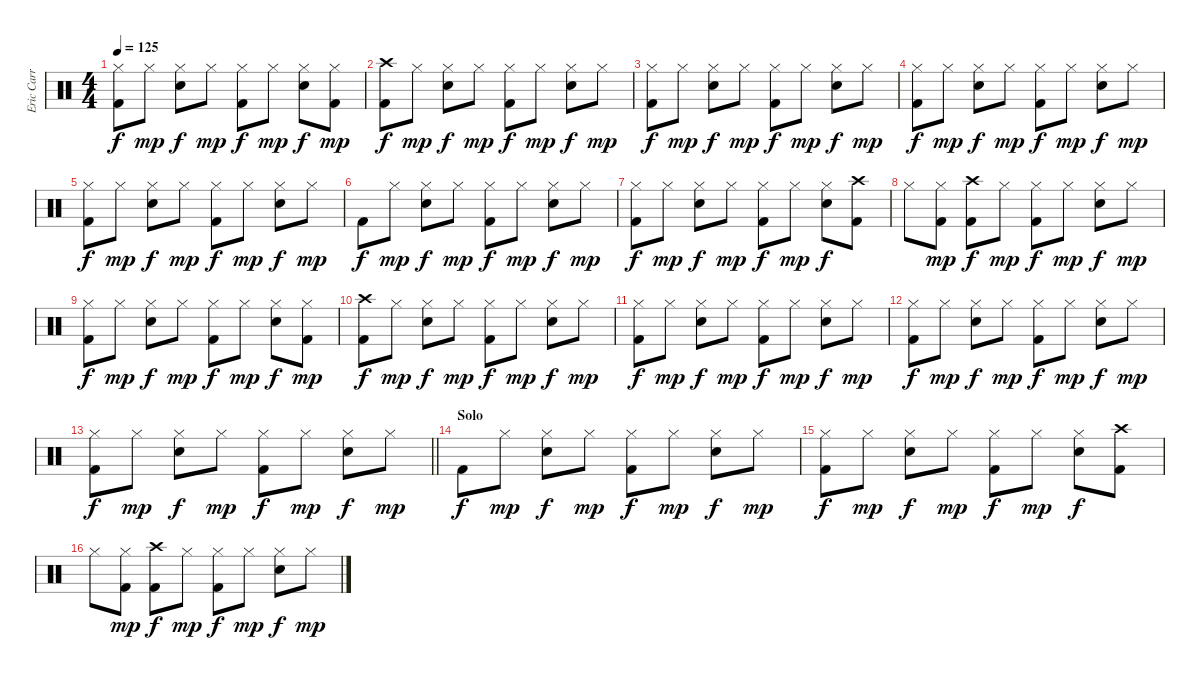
\track ("Eric Carr" "Eric Carr") {instrument percussion}
\staff {score}
\articulation defaults
\ts (4 4)
\tempo 125
\clef neutral
\ks c
("Hi-Hat (closed)" "Kick (hit) 2").8{dy f} "Hi-Hat (closed)".8{dy mp} ("Hi-Hat (closed)" "Snare (hit) 2").8{dy f} "Hi-Hat (closed)".8{dy mp} ("Hi-Hat (closed)" "Kick (hit) 2").8{dy f} "Hi-Hat (closed)".8{dy mp} ("Hi-Hat (closed)" "Snare (hit) 2").8{dy f} ("Hi-Hat (closed)" "Kick (hit) 2").8{dy mp} |
("Crash high (hit)" "Kick (hit) 2").8{dy f} "Hi-Hat (closed)".8{dy mp} ("Hi-Hat (closed)" "Snare (hit) 2").8{dy f} "Hi-Hat (closed)".8{dy mp} ("Hi-Hat (closed)" "Kick (hit) 2").8{dy f} "Hi-Hat (closed)".8{dy mp} ("Hi-Hat (closed)" "Snare (hit) 2").8{dy f} "Hi-Hat (closed)".8{dy mp} |
("Hi-Hat (closed)" "Kick (hit) 2").8{dy f} "Hi-Hat (closed)".8{dy mp} ("Hi-Hat (closed)" "Snare (hit) 2").8{dy f} "Hi-Hat (closed)".8{dy mp} ("Hi-Hat (closed)" "Kick (hit) 2").8{dy f} "Hi-Hat (closed)".8{dy mp} ("Hi-Hat (closed)" "Snare (hit) 2").8{dy f} "Hi-Hat (closed)".8{dy mp} |
("Hi-Hat (closed)" "Kick (hit) 2").8{dy f} "Hi-Hat (closed)".8{dy mp} ("Hi-Hat (closed)" "Snare (hit) 2").8{dy f} "Hi-Hat (closed)".8{dy mp} ("Hi-Hat (closed)" "Kick (hit) 2").8{dy f} "Hi-Hat (closed)".8{dy mp} ("Hi-Hat (closed)" "Snare (hit) 2").8{dy f} "Hi-Hat (closed)".8{dy mp} |
("Hi-Hat (closed)" "Kick (hit) 2").8{dy f} "Hi-Hat (closed)".8{dy mp} ("Hi-Hat (closed)" "Snare (hit) 2").8{dy f} "Hi-Hat (closed)".8{dy mp} ("Hi-Hat (closed)" "Kick (hit) 2").8{dy f} "Hi-Hat (closed)".8{dy mp} ("Hi-Hat (closed)" "Snare (hit) 2").8{dy f} "Hi-Hat (closed)".8{dy mp} |
"Kick (hit) 2".8{dy f} "Hi-Hat (closed)".8{dy mp} ("Hi-Hat (closed)" "Snare (hit) 2").8{dy f} "Hi-Hat (closed)".8{dy mp} ("Hi-Hat (closed)" "Kick (hit) 2").8{dy f} "Hi-Hat (closed)".8{dy mp} ("Hi-Hat (closed)" "Snare (hit) 2").8{dy f} "Hi-Hat (closed)".8{dy mp} |
("Hi-Hat (closed)" "Kick (hit) 2").8{dy f} "Hi-Hat (closed)".8{dy mp} ("Hi-Hat (closed)" "Snare (hit) 2").8{dy f} "Hi-Hat (closed)".8{dy mp} ("Hi-Hat (closed)" "Kick (hit) 2").8{dy f} "Hi-Hat (closed)".8{dy mp} ("Hi-Hat (closed)" "Snare (hit) 2").8{dy f} ("Crash high (hit)" "Kick (hit) 2").8 |
"Hi-Hat (closed)".8 ("Hi-Hat (closed)" "Kick (hit) 2").8{dy mp} ("Crash high (hit)" "Kick (hit) 2").8{dy f} "Hi-Hat (closed)".8{dy mp} ("Hi-Hat (closed)" "Kick (hit) 2").8{dy f} "Hi-Hat (closed)".8{dy mp} ("Hi-Hat (closed)" "Snare (hit) 2").8{dy f} "Hi-Hat (closed)".8{dy mp} |
("Hi-Hat (closed)" "Kick (hit) 2").8{dy f} "Hi-Hat (closed)".8{dy mp} ("Hi-Hat (closed)" "Snare (hit) 2").8{dy f} "Hi-Hat (closed)".8{dy mp} ("Hi-Hat (closed)" "Kick (hit) 2").8{dy f} "Hi-Hat (closed)".8{dy mp} ("Hi-Hat (closed)" "Snare (hit) 2").8{dy f} ("Hi-Hat (closed)" "Kick (hit) 2").8{dy mp} |
("Crash high (hit)" "Kick (hit) 2").8{dy f} "Hi-Hat (closed)".8{dy mp} ("Hi-Hat (closed)" "Snare (hit) 2").8{dy f} "Hi-Hat (closed)".8{dy mp} ("Hi-Hat (closed)" "Kick (hit) 2").8{dy f} "Hi-Hat (closed)".8{dy mp} ("Hi-Hat (closed)" "Snare (hit) 2").8{dy f} "Hi-Hat (closed)".8{dy mp} |
("Hi-Hat (closed)" "Kick (hit) 2").8{dy f} "Hi-Hat (closed)".8{dy mp} ("Hi-Hat (closed)" "Snare (hit) 2").8{dy f} "Hi-Hat (closed)".8{dy mp} ("Hi-Hat (closed)" "Kick (hit) 2").8{dy f} "Hi-Hat (closed)".8{dy mp} ("Hi-Hat (closed)" "Snare (hit) 2").8{dy f} "Hi-Hat (closed)".8{dy mp} |
("Hi-Hat (closed)" "Kick (hit) 2").8{dy f} "Hi-Hat (closed)".8{dy mp} ("Hi-Hat (closed)" "Snare (hit) 2").8{dy f} "Hi-Hat (closed)".8{dy mp} ("Hi-Hat (closed)" "Kick (hit) 2").8{dy f} "Hi-Hat (closed)".8{dy mp} ("Hi-Hat (closed)" "Snare (hit) 2").8{dy f} "Hi-Hat (closed)".8{dy mp} |
\barLineRight lightlight
("Hi-Hat (closed)" "Kick (hit) 2").8{dy f} "Hi-Hat (closed)".8{dy mp} ("Hi-Hat (closed)" "Snare (hit) 2").8{dy f} "Hi-Hat (closed)".8{dy mp} ("Hi-Hat (closed)" "Kick (hit) 2").8{dy f} "Hi-Hat (closed)".8{dy mp} ("Hi-Hat (closed)" "Snare (hit) 2").8{dy f} "Hi-Hat (closed)".8{dy mp} |
\section ("" "Solo")
"Kick (hit) 2".8{dy f} "Hi-Hat (closed)".8{dy mp} ("Hi-Hat (closed)" "Snare (hit) 2").8{dy f} "Hi-Hat (closed)".8{dy mp} ("Hi-Hat (closed)" "Kick (hit) 2").8{dy f} "Hi-Hat (closed)".8{dy mp} ("Hi-Hat (closed)" "Snare (hit) 2").8{dy f} "Hi-Hat (closed)".8{dy mp} |
("Hi-Hat (closed)" "Kick (hit) 2").8{dy f} "Hi-Hat (closed)".8{dy mp} ("Hi-Hat (closed)" "Snare (hit) 2").8{dy f} "Hi-Hat (closed)".8{dy mp} ("Hi-Hat (closed)" "Kick (hit) 2").8{dy f} "Hi-Hat (closed)".8{dy mp} ("Hi-Hat (closed)" "Snare (hit) 2").8{dy f} ("Crash high (hit)" "Kick (hit) 2").8 |
"Hi-Hat (closed)".8 ("Hi-Hat (closed)" "Kick (hit) 2").8{dy mp} ("Crash high (hit)" "Kick (hit) 2").8{dy f} "Hi-Hat (closed)".8{dy mp} ("Hi-Hat (closed)" "Kick (hit) 2").8{dy f} "Hi-Hat (closed)".8{dy mp} ("Hi-Hat (closed)" "Snare (hit) 2").8{dy f} "Hi-Hat (closed)".8{dy mp}
